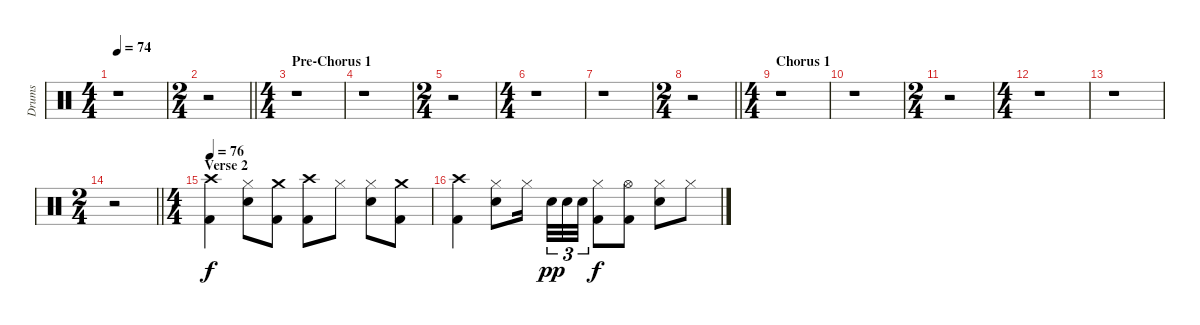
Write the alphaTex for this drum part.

\track ("Drums" "Drums") {instrument percussion}
\staff {score}
\articulation defaults
\ts (4 4)
\tempo 74
\clef neutral
\ks c
r.1{dy f} |
\ts (2 4)
\barLineRight lightlight
r.2 |
\ts (4 4)
\section ("" "Pre-Chorus 1")
r.1 |
r.1 |
\ts (2 4)
r.2 |
\ts (4 4)
r.1 |
r.1 |
\ts (2 4)
\barLineRight lightlight
r.2 |
\ts (4 4)
\section ("" "Chorus 1")
r.1 |
r.1 |
\ts (2 4)
r.2 |
\ts (4 4)
r.1 |
r.1 |
\ts (2 4)
\barLineRight lightlight
r.2 |
\ts (4 4)
\section ("" "Verse 2")
\tempo 76
("Crash high (hit)" "Kick (hit) 2").4 ("Hi-Hat (closed)" "Electric Snare (hit)").8 ("Crash medium (hit)" "Kick (hit) 2").8 ("Crash high (hit)" "Kick (hit) 2").8 "Hi-Hat (closed)".8 ("Hi-Hat (closed)" "Electric Snare (hit)").8 ("Crash medium (hit)" "Kick (hit) 2").8 |
("Crash high (hit)" "Kick (hit) 2").4 ("Hi-Hat (closed)" "Electric Snare (hit)").8 "Hi-Hat (closed)".16{beam splitsecondary} "Electric Snare (hit)".32{tu (3 2) dy pp} "Electric Snare (hit)".32{tu (3 2)} "Electric Snare (hit)".32{tu (3 2)} ("Hi-Hat (closed)" "Kick (hit) 2").8{dy f} ("Hi-Hat (open)" "Kick (hit) 2").8 ("Hi-Hat (closed)" "Electric Snare (hit)").8 "Hi-Hat (closed)".8
